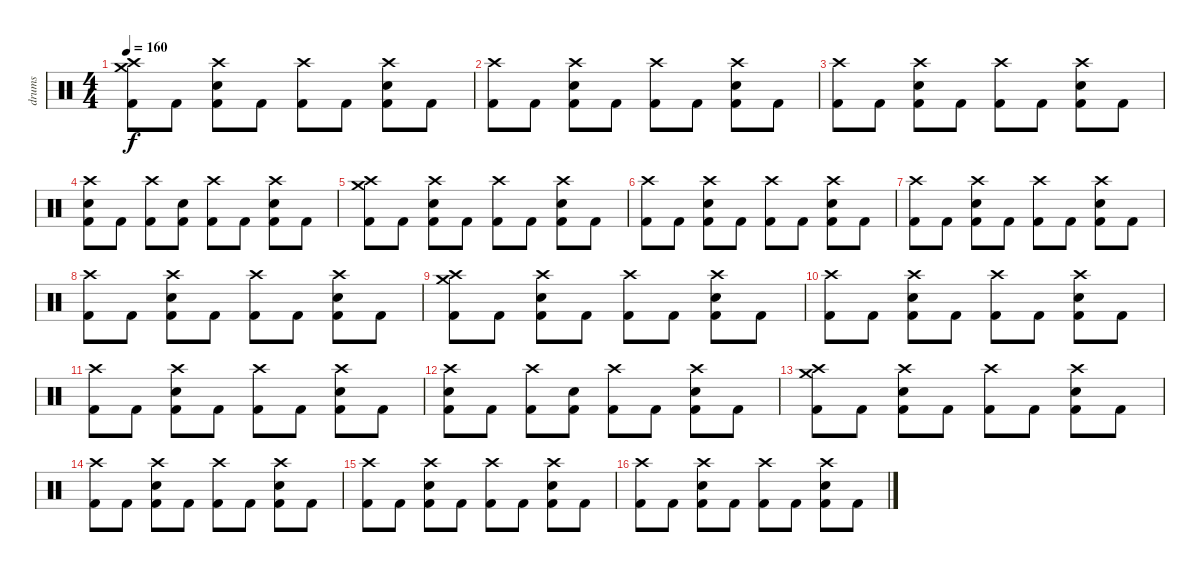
\track ("drums" "drums") {instrument percussion}
\staff {score}
\articulation defaults
\ts (4 4)
\tempo 160
\clef neutral
\ks c
("Crash high (hit)" "Crash medium (hit)" "Kick (hit) 2").8{dy f} "Kick (hit) 2".8 ("Crash high (hit)" "Electric Snare (hit)" "Kick (hit) 2").8 "Kick (hit) 2".8 ("Crash high (hit)" "Kick (hit) 2").8 "Kick (hit) 2".8 ("Crash high (hit)" "Electric Snare (hit)" "Kick (hit) 2").8 "Kick (hit) 2".8 |
("Crash high (hit)" "Kick (hit) 2").8 "Kick (hit) 2".8 ("Crash high (hit)" "Electric Snare (hit)" "Kick (hit) 2").8 "Kick (hit) 2".8 ("Crash high (hit)" "Kick (hit) 2").8 "Kick (hit) 2".8 ("Crash high (hit)" "Electric Snare (hit)" "Kick (hit) 2").8 "Kick (hit) 2".8 |
("Crash high (hit)" "Kick (hit) 2").8 "Kick (hit) 2".8 ("Crash high (hit)" "Electric Snare (hit)" "Kick (hit) 2").8 "Kick (hit) 2".8 ("Crash high (hit)" "Kick (hit) 2").8 "Kick (hit) 2".8 ("Crash high (hit)" "Electric Snare (hit)" "Kick (hit) 2").8 "Kick (hit) 2".8 |
("Crash high (hit)" "Electric Snare (hit)" "Kick (hit) 2").8 "Kick (hit) 2".8 ("Crash high (hit)" "Kick (hit) 2").8 ("Electric Snare (hit)" "Kick (hit) 2").8 ("Crash high (hit)" "Kick (hit) 2").8 "Kick (hit) 2".8 ("Crash high (hit)" "Electric Snare (hit)" "Kick (hit) 2").8 "Kick (hit) 2".8 |
("Crash high (hit)" "Crash medium (hit)" "Kick (hit) 2").8 "Kick (hit) 2".8 ("Crash high (hit)" "Electric Snare (hit)" "Kick (hit) 2").8 "Kick (hit) 2".8 ("Crash high (hit)" "Kick (hit) 2").8 "Kick (hit) 2".8 ("Crash high (hit)" "Electric Snare (hit)" "Kick (hit) 2").8 "Kick (hit) 2".8 |
("Crash high (hit)" "Kick (hit) 2").8 "Kick (hit) 2".8 ("Crash high (hit)" "Electric Snare (hit)" "Kick (hit) 2").8 "Kick (hit) 2".8 ("Crash high (hit)" "Kick (hit) 2").8 "Kick (hit) 2".8 ("Crash high (hit)" "Electric Snare (hit)" "Kick (hit) 2").8 "Kick (hit) 2".8 |
("Crash high (hit)" "Kick (hit) 2").8 "Kick (hit) 2".8 ("Crash high (hit)" "Electric Snare (hit)" "Kick (hit) 2").8 "Kick (hit) 2".8 ("Crash high (hit)" "Kick (hit) 2").8 "Kick (hit) 2".8 ("Crash high (hit)" "Electric Snare (hit)" "Kick (hit) 2").8 "Kick (hit) 2".8 |
("Crash high (hit)" "Kick (hit) 2").8 "Kick (hit) 2".8 ("Crash high (hit)" "Electric Snare (hit)" "Kick (hit) 2").8 "Kick (hit) 2".8 ("Crash high (hit)" "Kick (hit) 2").8 "Kick (hit) 2".8 ("Crash high (hit)" "Electric Snare (hit)" "Kick (hit) 2").8 "Kick (hit) 2".8 |
("Crash high (hit)" "Crash medium (hit)" "Kick (hit) 2").8 "Kick (hit) 2".8 ("Crash high (hit)" "Electric Snare (hit)" "Kick (hit) 2").8 "Kick (hit) 2".8 ("Crash high (hit)" "Kick (hit) 2").8 "Kick (hit) 2".8 ("Crash high (hit)" "Electric Snare (hit)" "Kick (hit) 2").8 "Kick (hit) 2".8 |
("Crash high (hit)" "Kick (hit) 2").8 "Kick (hit) 2".8 ("Crash high (hit)" "Electric Snare (hit)" "Kick (hit) 2").8 "Kick (hit) 2".8 ("Crash high (hit)" "Kick (hit) 2").8 "Kick (hit) 2".8 ("Crash high (hit)" "Electric Snare (hit)" "Kick (hit) 2").8 "Kick (hit) 2".8 |
("Crash high (hit)" "Kick (hit) 2").8 "Kick (hit) 2".8 ("Crash high (hit)" "Electric Snare (hit)" "Kick (hit) 2").8 "Kick (hit) 2".8 ("Crash high (hit)" "Kick (hit) 2").8 "Kick (hit) 2".8 ("Crash high (hit)" "Electric Snare (hit)" "Kick (hit) 2").8 "Kick (hit) 2".8 |
("Crash high (hit)" "Electric Snare (hit)" "Kick (hit) 2").8 "Kick (hit) 2".8 ("Crash high (hit)" "Kick (hit) 2").8 ("Electric Snare (hit)" "Kick (hit) 2").8 ("Crash high (hit)" "Kick (hit) 2").8 "Kick (hit) 2".8 ("Crash high (hit)" "Electric Snare (hit)" "Kick (hit) 2").8 "Kick (hit) 2".8 |
("Crash high (hit)" "Crash medium (hit)" "Kick (hit) 2").8 "Kick (hit) 2".8 ("Crash high (hit)" "Electric Snare (hit)" "Kick (hit) 2").8 "Kick (hit) 2".8 ("Crash high (hit)" "Kick (hit) 2").8 "Kick (hit) 2".8 ("Crash high (hit)" "Electric Snare (hit)" "Kick (hit) 2").8 "Kick (hit) 2".8 |
("Crash high (hit)" "Kick (hit) 2").8 "Kick (hit) 2".8 ("Crash high (hit)" "Electric Snare (hit)" "Kick (hit) 2").8 "Kick (hit) 2".8 ("Crash high (hit)" "Kick (hit) 2").8 "Kick (hit) 2".8 ("Crash high (hit)" "Electric Snare (hit)" "Kick (hit) 2").8 "Kick (hit) 2".8 |
("Crash high (hit)" "Kick (hit) 2").8 "Kick (hit) 2".8 ("Crash high (hit)" "Electric Snare (hit)" "Kick (hit) 2").8 "Kick (hit) 2".8 ("Crash high (hit)" "Kick (hit) 2").8 "Kick (hit) 2".8 ("Crash high (hit)" "Electric Snare (hit)" "Kick (hit) 2").8 "Kick (hit) 2".8 |
("Crash high (hit)" "Kick (hit) 2").8 "Kick (hit) 2".8 ("Crash high (hit)" "Electric Snare (hit)" "Kick (hit) 2").8 "Kick (hit) 2".8 ("Crash high (hit)" "Kick (hit) 2").8 "Kick (hit) 2".8 ("Crash high (hit)" "Electric Snare (hit)" "Kick (hit) 2").8 "Kick (hit) 2".8
